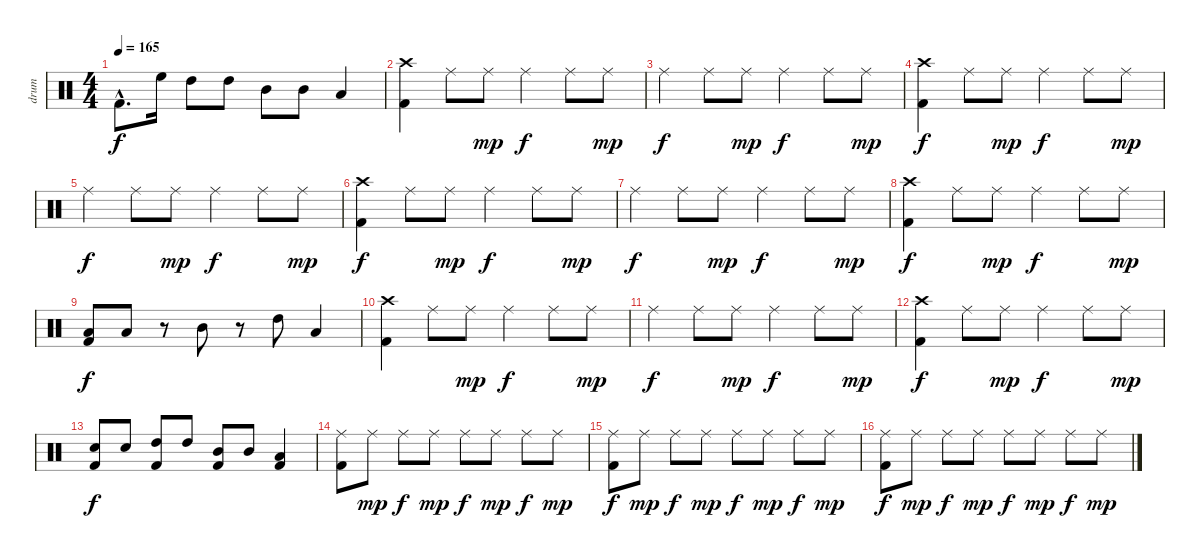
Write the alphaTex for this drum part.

\track ("drum" "drum") {instrument percussion}
\staff {score}
\articulation defaults
\ts (4 4)
\tempo 165
\clef neutral
\ks c "Kick (hit) 2"{hac}.8{d dy f} "High Floor Tom (hit)".16 "High Tom (hit)".8 "High Tom (hit)".8 "Mid Tom (hit)".8 "Mid Tom (hit)".8 "Low Tom (hit)".4
|
("Crash high (hit)" "Kick (hit) 2").4 "Ride (middle)".8 "Ride (middle)".8{dy mp} "Ride (middle)".4{dy f} "Ride (middle)".8 "Ride (middle)".8{dy mp} |
"Ride (middle)".4{dy f} "Ride (middle)".8 "Ride (middle)".8{dy mp} "Ride (middle)".4{dy f} "Ride (middle)".8 "Ride (middle)".8{dy mp} |
("Crash high (hit)" "Kick (hit) 2").4{dy f} "Ride (middle)".8 "Ride (middle)".8{dy mp} "Ride (middle)".4{dy f} "Ride (middle)".8 "Ride (middle)".8{dy mp} |
"Ride (middle)".4{dy f} "Ride (middle)".8 "Ride (middle)".8{dy mp} "Ride (middle)".4{dy f} "Ride (middle)".8 "Ride (middle)".8{dy mp} |
("Crash high (hit)" "Kick (hit) 2").4{dy f} "Ride (middle)".8 "Ride (middle)".8{dy mp} "Ride (middle)".4{dy f} "Ride (middle)".8 "Ride (middle)".8{dy mp} |
"Ride (middle)".4{dy f} "Ride (middle)".8 "Ride (middle)".8{dy mp} "Ride (middle)".4{dy f} "Ride (middle)".8 "Ride (middle)".8{dy mp} |
("Crash high (hit)" "Kick (hit) 2").4{dy f} "Ride (middle)".8 "Ride (middle)".8{dy mp} "Ride (middle)".4{dy f} "Ride (middle)".8 "Ride (middle)".8{dy mp} |
("Low Tom (hit)" "Kick (hit) 2").8{dy f} "Low Tom (hit)".8 r.8 "Mid Tom (hit)".8 r.8 "High Tom (hit)".8 "Low Tom (hit)".4 |
("Crash high (hit)" "Kick (hit) 2").4 "Ride (middle)".8 "Ride (middle)".8{dy mp} "Ride (middle)".4{dy f} "Ride (middle)".8 "Ride (middle)".8{dy mp} |
"Ride (middle)".4{dy f} "Ride (middle)".8 "Ride (middle)".8{dy mp} "Ride (middle)".4{dy f} "Ride (middle)".8 "Ride (middle)".8{dy mp} |
("Crash high (hit)" "Kick (hit) 2").4{dy f} "Ride (middle)".8 "Ride (middle)".8{dy mp} "Ride (middle)".4{dy f} "Ride (middle)".8 "Ride (middle)".8{dy mp} |
("Snare (hit) 2" "Kick (hit) 2").8{dy f} "Snare (hit) 2".8 ("High Tom (hit)" "Kick (hit) 2").8 "High Tom (hit)".8 ("Mid Tom (hit)" "Kick (hit) 2").8 "Mid Tom (hit)".8 ("Low Tom (hit)" "Kick (hit) 2").4 |
("Ride (middle)" "Kick (hit) 2").8 "Ride (middle)".8{dy mp} "Ride (middle)".8{dy f} "Ride (middle)".8{dy mp} "Ride (middle)".8{dy f} "Ride (middle)".8{dy mp} "Ride (middle)".8{dy f} "Ride (middle)".8{dy mp} |
("Ride (middle)" "Kick (hit) 2").8{dy f} "Ride (middle)".8{dy mp} "Ride (middle)".8{dy f} "Ride (middle)".8{dy mp} "Ride (middle)".8{dy f} "Ride (middle)".8{dy mp} "Ride (middle)".8{dy f} "Ride (middle)".8{dy mp} |
("Ride (middle)" "Kick (hit) 2").8{dy f} "Ride (middle)".8{dy mp} "Ride (middle)".8{dy f} "Ride (middle)".8{dy mp} "Ride (middle)".8{dy f} "Ride (middle)".8{dy mp} "Ride (middle)".8{dy f} "Ride (middle)".8{dy mp}
